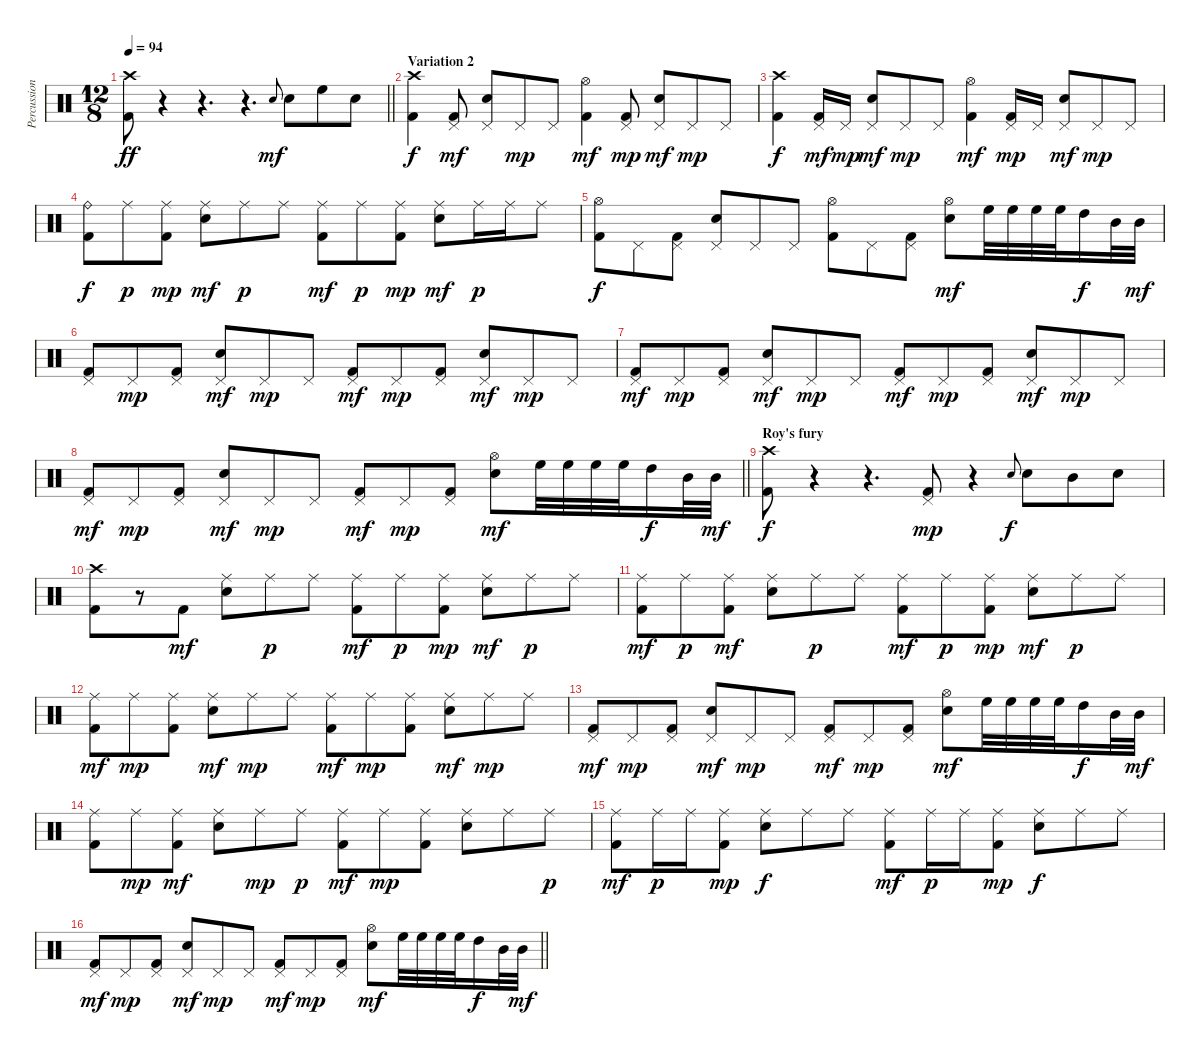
\track ("Percussions" "Percussion") {instrument percussion}
\staff {score}
\articulation defaults
\ts (12 8)
\tempo 94
\clef neutral
\barLineRight lightlight
\ks c
("Crash high (hit)" "Kick (hit) 2").8{dy ff} r.4 r.4{d} r.4{d} "Electric Snare (hit)".8{gr onbeat dy mf} "Electric Snare (hit)".8 "High Floor Tom (hit)".8 "Electric Snare (hit)".8 |
\section ("" "Variation 2")
("Crash high (hit)" "Kick (hit) 2").4{dy f} ("Pedal Hi-Hat (hit)" "Kick (hit) 2").8{dy mf} ("Pedal Hi-Hat (hit)" "Electric Snare (hit)").8 "Pedal Hi-Hat (hit)".8{dy mp} "Pedal Hi-Hat (hit)".8 ("Hi-Hat (open)" "Kick (hit) 2").4{dy mf} ("Pedal Hi-Hat (hit)" "Kick (hit) 2").8{dy mp} ("Pedal Hi-Hat (hit)" "Electric Snare (hit)").8{dy mf} "Pedal Hi-Hat (hit)".8{dy mp} "Pedal Hi-Hat (hit)".8 |
("Crash high (hit)" "Kick (hit) 2").4{dy f} ("Pedal Hi-Hat (hit)" "Kick (hit) 2").16{dy mf} "Pedal Hi-Hat (hit)".16{dy mp} ("Pedal Hi-Hat (hit)" "Electric Snare (hit)").8{dy mf} "Pedal Hi-Hat (hit)".8{dy mp} "Pedal Hi-Hat (hit)".8 ("Hi-Hat (open)" "Kick (hit) 2").4{dy mf} ("Pedal Hi-Hat (hit)" "Kick (hit) 2").16{dy mp} "Pedal Hi-Hat (hit)".16 ("Pedal Hi-Hat (hit)" "Electric Snare (hit)").8{dy mf} "Pedal Hi-Hat (hit)".8{dy mp} "Pedal Hi-Hat (hit)".8 |
("Ride (bell)" "Kick (hit) 2").8{dy f} "Ride (middle)".8{dy p} ("Ride (middle)" "Kick (hit) 2").8{dy mp} ("Ride (middle)" "Electric Snare (hit)").8{dy mf} "Ride (middle)".8{dy p} "Ride (middle)".8 ("Ride (middle)" "Kick (hit) 2").8{dy mf} "Ride (middle)".8{dy p} ("Ride (middle)" "Kick (hit) 2").8{dy mp} ("Ride (middle)" "Electric Snare (hit)").8{dy mf} "Ride (middle)".16{dy p} "Ride (middle)".16 "Ride (middle)".8 |
("Hi-Hat (open)" "Kick (hit) 2").8{dy f} "Pedal Hi-Hat (hit)".8 ("Pedal Hi-Hat (hit)" "Kick (hit) 2").8 ("Pedal Hi-Hat (hit)" "Electric Snare (hit)").8 "Pedal Hi-Hat (hit)".8 "Pedal Hi-Hat (hit)".8 ("Hi-Hat (open)" "Kick (hit) 2").8 "Pedal Hi-Hat (hit)".8 ("Pedal Hi-Hat (hit)" "Kick (hit) 2").8 ("Hi-Hat (open)" "Electric Snare (hit)").8{dy mf} "High Floor Tom (hit)".32 "High Floor Tom (hit)".32 "High Floor Tom (hit)".32 "High Floor Tom (hit)".32 "High Tom (hit)".16{dy f} "Mid Tom (hit)".32 "Mid Tom (hit)".32{dy mf} |
("Pedal Hi-Hat (hit)" "Kick (hit) 2").8 "Pedal Hi-Hat (hit)".8{dy mp} ("Pedal Hi-Hat (hit)" "Kick (hit) 2").8 ("Pedal Hi-Hat (hit)" "Electric Snare (hit)").8{dy mf} "Pedal Hi-Hat (hit)".8{dy mp} "Pedal Hi-Hat (hit)".8 ("Pedal Hi-Hat (hit)" "Kick (hit) 2").8{dy mf} "Pedal Hi-Hat (hit)".8{dy mp} ("Pedal Hi-Hat (hit)" "Kick (hit) 2").8 ("Pedal Hi-Hat (hit)" "Electric Snare (hit)").8{dy mf} "Pedal Hi-Hat (hit)".8{dy mp} "Pedal Hi-Hat (hit)".8 |
("Pedal Hi-Hat (hit)" "Kick (hit) 2").8{dy mf} "Pedal Hi-Hat (hit)".8{dy mp} ("Pedal Hi-Hat (hit)" "Kick (hit) 2").8 ("Pedal Hi-Hat (hit)" "Electric Snare (hit)").8{dy mf} "Pedal Hi-Hat (hit)".8{dy mp} "Pedal Hi-Hat (hit)".8 ("Pedal Hi-Hat (hit)" "Kick (hit) 2").8{dy mf} "Pedal Hi-Hat (hit)".8{dy mp} ("Pedal Hi-Hat (hit)" "Kick (hit) 2").8 ("Pedal Hi-Hat (hit)" "Electric Snare (hit)").8{dy mf} "Pedal Hi-Hat (hit)".8{dy mp} "Pedal Hi-Hat (hit)".8 |
\barLineRight lightlight
("Pedal Hi-Hat (hit)" "Kick (hit) 2").8{dy mf} "Pedal Hi-Hat (hit)".8{dy mp} ("Pedal Hi-Hat (hit)" "Kick (hit) 2").8 ("Pedal Hi-Hat (hit)" "Electric Snare (hit)").8{dy mf} "Pedal Hi-Hat (hit)".8{dy mp} "Pedal Hi-Hat (hit)".8 ("Pedal Hi-Hat (hit)" "Kick (hit) 2").8{dy mf} "Pedal Hi-Hat (hit)".8{dy mp} ("Pedal Hi-Hat (hit)" "Kick (hit) 2").8 ("Hi-Hat (open)" "Electric Snare (hit)").8{dy mf} "High Floor Tom (hit)".32 "High Floor Tom (hit)".32 "High Floor Tom (hit)".32 "High Floor Tom (hit)".32 "High Tom (hit)".16{dy f} "Mid Tom (hit)".32 "Mid Tom (hit)".32{dy mf} |
\section ("" "Roy's fury")
("Crash high (hit)" "Kick (hit) 2").8{dy f} r.4 r.4{d} ("Pedal Hi-Hat (hit)" "Kick (hit) 2").8{dy mp} r.4 "Electric Snare (hit)".8{gr onbeat dy f} "Electric Snare (hit)".8 "Mid Tom (hit)".8 "Electric Snare (hit)".8 |
("Crash high (hit)" "Kick (hit) 2").8 r.8 "Kick (hit) 2".8{dy mf} ("Ride (middle)" "Electric Snare (hit)").8 "Ride (middle)".8{dy p} "Ride (middle)".8 ("Ride (middle)" "Kick (hit) 2").8{dy mf} "Ride (middle)".8{dy p} ("Ride (middle)" "Kick (hit) 2").8{dy mp} ("Ride (middle)" "Electric Snare (hit)").8{dy mf} "Ride (middle)".8{dy p} "Ride (middle)".8 |
("Ride (middle)" "Kick (hit) 2").8{dy mf} "Ride (middle)".8{dy p} ("Ride (middle)" "Kick (hit) 2").8{dy mf} ("Ride (middle)" "Electric Snare (hit)").8 "Ride (middle)".8{dy p} "Ride (middle)".8 ("Ride (middle)" "Kick (hit) 2").8{dy mf} "Ride (middle)".8{dy p} ("Ride (middle)" "Kick (hit) 2").8{dy mp} ("Ride (middle)" "Electric Snare (hit)").8{dy mf} "Ride (middle)".8{dy p} "Ride (middle)".8 |
("Ride (middle)" "Kick (hit) 2").8{dy mf} "Ride (middle)".8{dy mp} ("Ride (middle)" "Kick (hit) 2").8 ("Ride (middle)" "Electric Snare (hit)").8{dy mf} "Ride (middle)".8{dy mp} "Ride (middle)".8 ("Ride (middle)" "Kick (hit) 2").8{dy mf} "Ride (middle)".8{dy mp} ("Ride (middle)" "Kick (hit) 2").8 ("Ride (middle)" "Electric Snare (hit)").8{dy mf} "Ride (middle)".8{dy mp} "Ride (middle)".8 |
("Pedal Hi-Hat (hit)" "Kick (hit) 2").8{dy mf} "Pedal Hi-Hat (hit)".8{dy mp} ("Pedal Hi-Hat (hit)" "Kick (hit) 2").8 ("Pedal Hi-Hat (hit)" "Electric Snare (hit)").8{dy mf} "Pedal Hi-Hat (hit)".8{dy mp} "Pedal Hi-Hat (hit)".8 ("Pedal Hi-Hat (hit)" "Kick (hit) 2").8{dy mf} "Pedal Hi-Hat (hit)".8{dy mp} ("Pedal Hi-Hat (hit)" "Kick (hit) 2").8 ("Hi-Hat (open)" "Electric Snare (hit)").8{dy mf} "High Floor Tom (hit)".32 "High Floor Tom (hit)".32 "High Floor Tom (hit)".32 "High Floor Tom (hit)".32 "High Tom (hit)".16{dy f} "Mid Tom (hit)".32 "Mid Tom (hit)".32{dy mf} |
("Ride (middle)" "Kick (hit) 2").8 "Ride (middle)".8{dy mp} ("Ride (middle)" "Kick (hit) 2").8{dy mf} ("Ride (middle)" "Electric Snare (hit)").8 "Ride (middle)".8{dy mp} "Ride (middle)".8{dy p} ("Ride (middle)" "Kick (hit) 2").8{dy mf} "Ride (middle)".8{dy mp} ("Ride (middle)" "Kick (hit) 2").8 ("Ride (middle)" "Electric Snare (hit)").8 "Ride (middle)".8 "Ride (middle)".8{dy p} |
("Ride (middle)" "Kick (hit) 2").8{dy mf} "Ride (middle)".16{dy p} "Ride (middle)".16 ("Ride (middle)" "Kick (hit) 2").8{dy mp} ("Ride (middle)" "Electric Snare (hit)").8{dy f} "Ride (middle)".8 "Ride (middle)".8 ("Ride (middle)" "Kick (hit) 2").8{dy mf} "Ride (middle)".16{dy p} "Ride (middle)".16 ("Ride (middle)" "Kick (hit) 2").8{dy mp} ("Ride (middle)" "Electric Snare (hit)").8{dy f} "Ride (middle)".8 "Ride (middle)".8 |
\barLineRight lightlight
("Pedal Hi-Hat (hit)" "Kick (hit) 2").8{dy mf} "Pedal Hi-Hat (hit)".8{dy mp} ("Pedal Hi-Hat (hit)" "Kick (hit) 2").8 ("Pedal Hi-Hat (hit)" "Electric Snare (hit)").8{dy mf} "Pedal Hi-Hat (hit)".8{dy mp} "Pedal Hi-Hat (hit)".8 ("Pedal Hi-Hat (hit)" "Kick (hit) 2").8{dy mf} "Pedal Hi-Hat (hit)".8{dy mp} ("Pedal Hi-Hat (hit)" "Kick (hit) 2").8 ("Hi-Hat (open)" "Electric Snare (hit)").8{dy mf} "High Floor Tom (hit)".32 "High Floor Tom (hit)".32 "High Floor Tom (hit)".32 "High Floor Tom (hit)".32 "High Tom (hit)".16{dy f} "Mid Tom (hit)".32 "Mid Tom (hit)".32{dy mf}
